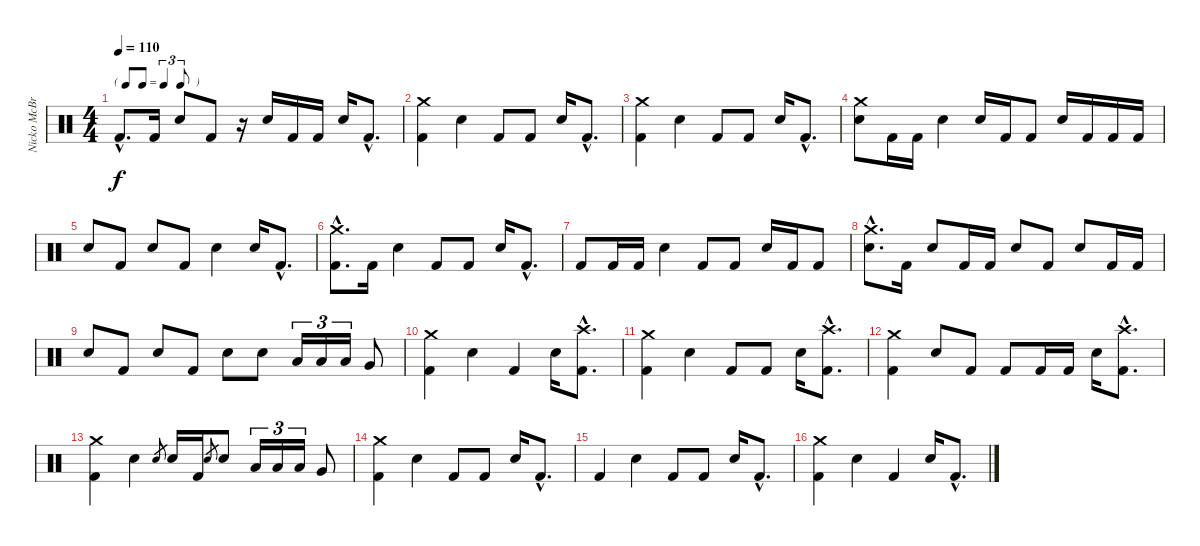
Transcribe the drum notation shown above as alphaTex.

\track ("Nicko McBrain" "Nicko McBr") {instrument percussion}
\staff {score}
\articulation defaults
\ts (4 4)
\tf triplet8th
\tempo 110
\clef neutral
\ks c "Kick (hit) 2"{hac}.8{d dy f} "Kick (hit) 2".16 "Electric Snare (hit)".8 "Kick (hit) 2".8
r.16 "Electric Snare (hit)".16 "Kick (hit) 2".16 "Kick (hit) 2".16 "Electric Snare (hit)".16 "Kick (hit) 2"{hac}.8{d} |
("Crash medium (hit)" "Kick (hit) 2").4 "Electric Snare (hit)".4 "Kick (hit) 2".8 "Kick (hit) 2".8 "Electric Snare (hit)".16 "Kick (hit) 2"{hac}.8{d} |
("Crash medium (hit)" "Kick (hit) 2").4 "Electric Snare (hit)".4 "Kick (hit) 2".8 "Kick (hit) 2".8 "Electric Snare (hit)".16 "Kick (hit) 2"{hac}.8{d} |
("Crash medium (hit)" "Electric Snare (hit)").8 "Kick (hit) 2".16 "Kick (hit) 2".16 "Electric Snare (hit)".4 "Electric Snare (hit)".16 "Kick (hit) 2".16 "Kick (hit) 2".8 "Electric Snare (hit)".16 "Kick (hit) 2".16 "Kick (hit) 2".16 "Kick (hit) 2".16 |
"Electric Snare (hit)".8 "Kick (hit) 2".8 "Electric Snare (hit)".8 "Kick (hit) 2".8 "Electric Snare (hit)".4 "Electric Snare (hit)".16 "Kick (hit) 2"{hac}.8{d} |
("Crash medium (hit)"{hac} "Kick (hit) 2"{hac}).8{d} "Kick (hit) 2".16 "Electric Snare (hit)".4 "Kick (hit) 2".8 "Kick (hit) 2".8 "Electric Snare (hit)".16 "Kick (hit) 2"{hac}.8{d} |
"Kick (hit) 2".8 "Kick (hit) 2".16 "Kick (hit) 2".16 "Electric Snare (hit)".4 "Kick (hit) 2".8 "Kick (hit) 2".8 "Electric Snare (hit)".16 "Kick (hit) 2".16 "Kick (hit) 2".8 |
("Crash medium (hit)"{hac} "Electric Snare (hit)"{hac}).8{d} "Kick (hit) 2".16 "Electric Snare (hit)".8 "Kick (hit) 2".16 "Kick (hit) 2".16 "Electric Snare (hit)".8 "Kick (hit) 2".8 "Electric Snare (hit)".8 "Kick (hit) 2".16 "Kick (hit) 2".16 |
"Electric Snare (hit)".8 "Kick (hit) 2".8 "Electric Snare (hit)".8 "Kick (hit) 2".8 "Electric Snare (hit)".8 "Electric Snare (hit)".8 "Low Tom (hit)".16{tu (3 2)} "Low Tom (hit)".16{tu (3 2)} "Low Tom (hit)".16{tu (3 2)} "Very Low Tom (hit)".8 |
("Crash medium (hit)" "Kick (hit) 2").4 "Electric Snare (hit)".4 "Kick (hit) 2".4 "Electric Snare (hit)".16 ("Crash high (hit)"{hac} "Kick (hit) 2"{hac}).8{d} |
("Crash medium (hit)" "Kick (hit) 2").4 "Electric Snare (hit)".4 "Kick (hit) 2".8 "Kick (hit) 2".8 "Electric Snare (hit)".16 ("Crash high (hit)"{hac} "Kick (hit) 2"{hac}).8{d} |
("Crash medium (hit)" "Kick (hit) 2").4 "Electric Snare (hit)".8 "Kick (hit) 2".8 "Kick (hit) 2".8 "Kick (hit) 2".16 "Kick (hit) 2".16 "Electric Snare (hit)".16 ("Crash high (hit)"{hac} "Kick (hit) 2"{hac}).8{d} |
("Crash medium (hit)" "Kick (hit) 2").4 "Electric Snare (hit)".4 "Electric Snare (hit)".8{gr} "Electric Snare (hit)".16 "Kick (hit) 2".16 "Electric Snare (hit)".8{gr} "Electric Snare (hit)".8 "Low Tom (hit)".16{tu (3 2)} "Low Tom (hit)".16{tu (3 2)} "Low Tom (hit)".16{tu (3 2)} "Very Low Tom (hit)".8 |
("Crash medium (hit)" "Kick (hit) 2").4 "Electric Snare (hit)".4 "Kick (hit) 2".8 "Kick (hit) 2".8 "Electric Snare (hit)".16 "Kick (hit) 2"{hac}.8{d} |
"Kick (hit) 2".4 "Electric Snare (hit)".4 "Kick (hit) 2".8 "Kick (hit) 2".8 "Electric Snare (hit)".16 "Kick (hit) 2"{hac}.8{d} |
("Crash medium (hit)" "Kick (hit) 2").4 "Electric Snare (hit)".4 "Kick (hit) 2".4 "Electric Snare (hit)".16 "Kick (hit) 2"{hac}.8{d}
